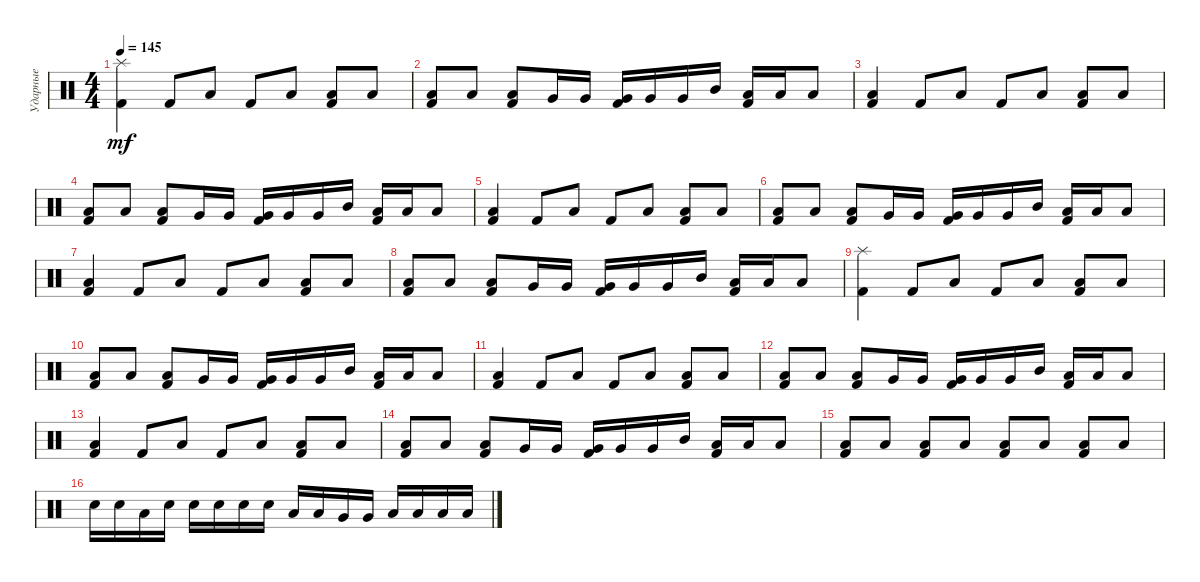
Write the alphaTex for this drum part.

\track ("Ударные" "Ударные") {instrument percussion}
\staff {score}
\articulation defaults
\ts (4 4)
\tempo 145
\clef neutral
\ks c
("Splash (hit)" "Kick (hit) 2").4{dy mf} "Kick (hit) 2".8 "Low Tom (hit)".8 "Kick (hit) 2".8 "Low Tom (hit)".8 ("Low Tom (hit)" "Kick (hit) 2").8 "Low Tom (hit)".8 |
("Low Tom (hit)" "Kick (hit) 2").8 "Low Tom (hit)".8 ("Low Tom (hit)" "Kick (hit) 2").8 "Very Low Tom (hit)".16 "Very Low Tom (hit)".16 ("Very Low Tom (hit)" "Kick (hit) 2").16 "Very Low Tom (hit)".16 "Very Low Tom (hit)".16 "Mid Tom (hit)".16 ("Low Tom (hit)" "Kick (hit) 2").16 "Low Tom (hit)".16 "Low Tom (hit)".8 |
("Low Tom (hit)" "Kick (hit) 2").4 "Kick (hit) 2".8 "Low Tom (hit)".8 "Kick (hit) 2".8 "Low Tom (hit)".8 ("Low Tom (hit)" "Kick (hit) 2").8 "Low Tom (hit)".8 |
("Low Tom (hit)" "Kick (hit) 2").8 "Low Tom (hit)".8 ("Low Tom (hit)" "Kick (hit) 2").8 "Very Low Tom (hit)".16 "Very Low Tom (hit)".16 ("Very Low Tom (hit)" "Kick (hit) 2").16 "Very Low Tom (hit)".16 "Very Low Tom (hit)".16 "Mid Tom (hit)".16 ("Low Tom (hit)" "Kick (hit) 2").16 "Low Tom (hit)".16 "Low Tom (hit)".8 |
("Low Tom (hit)" "Kick (hit) 2").4 "Kick (hit) 2".8 "Low Tom (hit)".8 "Kick (hit) 2".8 "Low Tom (hit)".8 ("Low Tom (hit)" "Kick (hit) 2").8 "Low Tom (hit)".8 |
("Low Tom (hit)" "Kick (hit) 2").8 "Low Tom (hit)".8 ("Low Tom (hit)" "Kick (hit) 2").8 "Very Low Tom (hit)".16 "Very Low Tom (hit)".16 ("Very Low Tom (hit)" "Kick (hit) 2").16 "Very Low Tom (hit)".16 "Very Low Tom (hit)".16 "Mid Tom (hit)".16 ("Low Tom (hit)" "Kick (hit) 2").16 "Low Tom (hit)".16 "Low Tom (hit)".8 |
("Low Tom (hit)" "Kick (hit) 2").4 "Kick (hit) 2".8 "Low Tom (hit)".8 "Kick (hit) 2".8 "Low Tom (hit)".8 ("Low Tom (hit)" "Kick (hit) 2").8 "Low Tom (hit)".8 |
("Low Tom (hit)" "Kick (hit) 2").8 "Low Tom (hit)".8 ("Low Tom (hit)" "Kick (hit) 2").8 "Very Low Tom (hit)".16 "Very Low Tom (hit)".16 ("Very Low Tom (hit)" "Kick (hit) 2").16 "Very Low Tom (hit)".16 "Very Low Tom (hit)".16 "Mid Tom (hit)".16 ("Low Tom (hit)" "Kick (hit) 2").16 "Low Tom (hit)".16 "Low Tom (hit)".8 |
("Splash (hit)" "Kick (hit) 2").4 "Kick (hit) 2".8 "Low Tom (hit)".8 "Kick (hit) 2".8 "Low Tom (hit)".8 ("Low Tom (hit)" "Kick (hit) 2").8 "Low Tom (hit)".8 |
("Low Tom (hit)" "Kick (hit) 2").8 "Low Tom (hit)".8 ("Low Tom (hit)" "Kick (hit) 2").8 "Very Low Tom (hit)".16 "Very Low Tom (hit)".16 ("Very Low Tom (hit)" "Kick (hit) 2").16 "Very Low Tom (hit)".16 "Very Low Tom (hit)".16 "Mid Tom (hit)".16 ("Low Tom (hit)" "Kick (hit) 2").16 "Low Tom (hit)".16 "Low Tom (hit)".8 |
("Low Tom (hit)" "Kick (hit) 2").4 "Kick (hit) 2".8 "Low Tom (hit)".8 "Kick (hit) 2".8 "Low Tom (hit)".8 ("Low Tom (hit)" "Kick (hit) 2").8 "Low Tom (hit)".8 |
("Low Tom (hit)" "Kick (hit) 2").8 "Low Tom (hit)".8 ("Low Tom (hit)" "Kick (hit) 2").8 "Very Low Tom (hit)".16 "Very Low Tom (hit)".16 ("Very Low Tom (hit)" "Kick (hit) 2").16 "Very Low Tom (hit)".16 "Very Low Tom (hit)".16 "Mid Tom (hit)".16 ("Low Tom (hit)" "Kick (hit) 2").16 "Low Tom (hit)".16 "Low Tom (hit)".8 |
("Low Tom (hit)" "Kick (hit) 2").4 "Kick (hit) 2".8 "Low Tom (hit)".8 "Kick (hit) 2".8 "Low Tom (hit)".8 ("Low Tom (hit)" "Kick (hit) 2").8 "Low Tom (hit)".8 |
("Low Tom (hit)" "Kick (hit) 2").8 "Low Tom (hit)".8 ("Low Tom (hit)" "Kick (hit) 2").8 "Very Low Tom (hit)".16 "Very Low Tom (hit)".16 ("Very Low Tom (hit)" "Kick (hit) 2").16 "Very Low Tom (hit)".16 "Very Low Tom (hit)".16 "Mid Tom (hit)".16 ("Low Tom (hit)" "Kick (hit) 2").16 "Low Tom (hit)".16 "Low Tom (hit)".8 |
("Low Tom (hit)" "Kick (hit) 2").8 "Low Tom (hit)".8 ("Low Tom (hit)" "Kick (hit) 2").8 "Low Tom (hit)".8 ("Low Tom (hit)" "Kick (hit) 2").8 "Low Tom (hit)".8 ("Low Tom (hit)" "Kick (hit) 2").8 "Low Tom (hit)".8 |
"Electric Snare (hit)".16 "Electric Snare (hit)".16 "Low Tom (hit)".16 "Electric Snare (hit)".16 "Electric Snare (hit)".16 "Electric Snare (hit)".16 "Electric Snare (hit)".16 "Electric Snare (hit)".16 "Low Tom (hit)".16 "Low Tom (hit)".16 "Very Low Tom (hit)".16 "Very Low Tom (hit)".16 "Low Tom (hit)".16 "Low Tom (hit)".16 "Low Tom (hit)".16 "Low Tom (hit)".16
